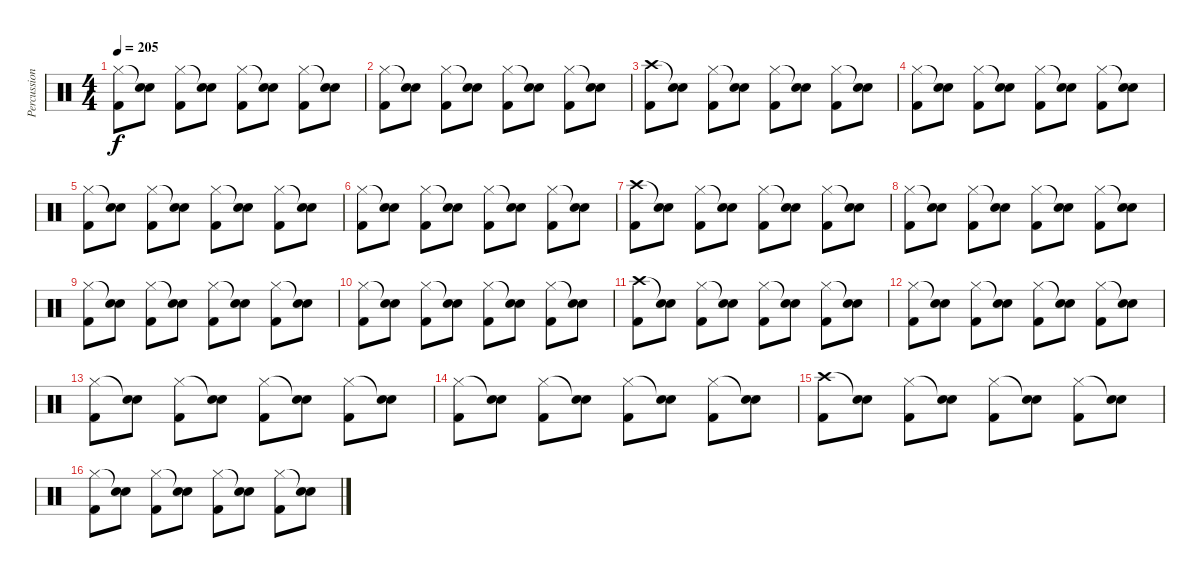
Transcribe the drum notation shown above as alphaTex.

\track ("Percussioni" "Percussion") {instrument percussion}
\staff {score}
\articulation defaults
\ts (4 4)
\tempo 205
\clef neutral
\ks c
("Hi-Hat (closed)" "Kick (hit) 2").8{dy f} ("Snare (hit)"{t} "Snare (hit) 2").8 ("Hi-Hat (closed)" "Kick (hit) 2").8 ("Snare (hit)"{t} "Snare (hit) 2").8 ("Hi-Hat (closed)" "Kick (hit) 2").8 ("Snare (hit)"{t} "Snare (hit) 2").8 ("Hi-Hat (closed)" "Kick (hit) 2").8 ("Snare (hit)"{t} "Snare (hit) 2").8 |
("Hi-Hat (closed)" "Kick (hit) 2").8 ("Snare (hit)"{t} "Snare (hit) 2").8 ("Hi-Hat (closed)" "Kick (hit) 2").8 ("Snare (hit)"{t} "Snare (hit) 2").8 ("Hi-Hat (closed)" "Kick (hit) 2").8 ("Snare (hit)"{t} "Snare (hit) 2").8 ("Hi-Hat (closed)" "Kick (hit) 2").8 ("Snare (hit)"{t} "Snare (hit) 2").8 |
("Crash high (hit)" "Kick (hit) 2").8 ("Snare (hit)"{t} "Snare (hit) 2").8 ("Hi-Hat (closed)" "Kick (hit) 2").8 ("Snare (hit)"{t} "Snare (hit) 2").8 ("Hi-Hat (closed)" "Kick (hit) 2").8 ("Snare (hit)"{t} "Snare (hit) 2").8 ("Hi-Hat (closed)" "Kick (hit) 2").8 ("Snare (hit)"{t} "Snare (hit) 2").8 |
("Hi-Hat (closed)" "Kick (hit) 2").8 ("Snare (hit)"{t} "Snare (hit) 2").8 ("Hi-Hat (closed)" "Kick (hit) 2").8 ("Snare (hit)"{t} "Snare (hit) 2").8 ("Hi-Hat (closed)" "Kick (hit) 2").8 ("Snare (hit)"{t} "Snare (hit) 2").8 ("Hi-Hat (closed)" "Kick (hit) 2").8 ("Snare (hit)"{t} "Snare (hit) 2").8 |
("Hi-Hat (closed)" "Kick (hit) 2").8 ("Snare (hit)"{t} "Snare (hit) 2").8 ("Hi-Hat (closed)" "Kick (hit) 2").8 ("Snare (hit)"{t} "Snare (hit) 2").8 ("Hi-Hat (closed)" "Kick (hit) 2").8 ("Snare (hit)"{t} "Snare (hit) 2").8 ("Hi-Hat (closed)" "Kick (hit) 2").8 ("Snare (hit)"{t} "Snare (hit) 2").8 |
("Hi-Hat (closed)" "Kick (hit) 2").8 ("Snare (hit)"{t} "Snare (hit) 2").8 ("Hi-Hat (closed)" "Kick (hit) 2").8 ("Snare (hit)"{t} "Snare (hit) 2").8 ("Hi-Hat (closed)" "Kick (hit) 2").8 ("Snare (hit)"{t} "Snare (hit) 2").8 ("Hi-Hat (closed)" "Kick (hit) 2").8 ("Snare (hit)"{t} "Snare (hit) 2").8 |
("Crash high (hit)" "Kick (hit) 2").8 ("Snare (hit)"{t} "Snare (hit) 2").8 ("Hi-Hat (closed)" "Kick (hit) 2").8 ("Snare (hit)"{t} "Snare (hit) 2").8 ("Hi-Hat (closed)" "Kick (hit) 2").8 ("Snare (hit)"{t} "Snare (hit) 2").8 ("Hi-Hat (closed)" "Kick (hit) 2").8 ("Snare (hit)"{t} "Snare (hit) 2").8 |
("Hi-Hat (closed)" "Kick (hit) 2").8 ("Snare (hit)"{t} "Snare (hit) 2").8 ("Hi-Hat (closed)" "Kick (hit) 2").8 ("Snare (hit)"{t} "Snare (hit) 2").8 ("Hi-Hat (closed)" "Kick (hit) 2").8 ("Snare (hit)"{t} "Snare (hit) 2").8 ("Hi-Hat (closed)" "Kick (hit) 2").8 ("Snare (hit)"{t} "Snare (hit) 2").8 |
("Hi-Hat (closed)" "Kick (hit) 2").8 ("Snare (hit)"{t} "Snare (hit) 2").8 ("Hi-Hat (closed)" "Kick (hit) 2").8 ("Snare (hit)"{t} "Snare (hit) 2").8 ("Hi-Hat (closed)" "Kick (hit) 2").8 ("Snare (hit)"{t} "Snare (hit) 2").8 ("Hi-Hat (closed)" "Kick (hit) 2").8 ("Snare (hit)"{t} "Snare (hit) 2").8 |
("Hi-Hat (closed)" "Kick (hit) 2").8 ("Snare (hit)"{t} "Snare (hit) 2").8 ("Hi-Hat (closed)" "Kick (hit) 2").8 ("Snare (hit)"{t} "Snare (hit) 2").8 ("Hi-Hat (closed)" "Kick (hit) 2").8 ("Snare (hit)"{t} "Snare (hit) 2").8 ("Hi-Hat (closed)" "Kick (hit) 2").8 ("Snare (hit)"{t} "Snare (hit) 2").8 |
("Crash high (hit)" "Kick (hit) 2").8 ("Snare (hit)"{t} "Snare (hit) 2").8 ("Hi-Hat (closed)" "Kick (hit) 2").8 ("Snare (hit)"{t} "Snare (hit) 2").8 ("Hi-Hat (closed)" "Kick (hit) 2").8 ("Snare (hit)"{t} "Snare (hit) 2").8 ("Hi-Hat (closed)" "Kick (hit) 2").8 ("Snare (hit)"{t} "Snare (hit) 2").8 |
("Hi-Hat (closed)" "Kick (hit) 2").8 ("Snare (hit)"{t} "Snare (hit) 2").8 ("Hi-Hat (closed)" "Kick (hit) 2").8 ("Snare (hit)"{t} "Snare (hit) 2").8 ("Hi-Hat (closed)" "Kick (hit) 2").8 ("Snare (hit)"{t} "Snare (hit) 2").8 ("Hi-Hat (closed)" "Kick (hit) 2").8 ("Snare (hit)"{t} "Snare (hit) 2").8 |
("Hi-Hat (closed)" "Kick (hit) 2").8 ("Snare (hit)"{t} "Snare (hit) 2").8 ("Hi-Hat (closed)" "Kick (hit) 2").8 ("Snare (hit)"{t} "Snare (hit) 2").8 ("Hi-Hat (closed)" "Kick (hit) 2").8 ("Snare (hit)"{t} "Snare (hit) 2").8 ("Hi-Hat (closed)" "Kick (hit) 2").8 ("Snare (hit)"{t} "Snare (hit) 2").8 |
("Hi-Hat (closed)" "Kick (hit) 2").8 ("Snare (hit)"{t} "Snare (hit) 2").8 ("Hi-Hat (closed)" "Kick (hit) 2").8 ("Snare (hit)"{t} "Snare (hit) 2").8 ("Hi-Hat (closed)" "Kick (hit) 2").8 ("Snare (hit)"{t} "Snare (hit) 2").8 ("Hi-Hat (closed)" "Kick (hit) 2").8 ("Snare (hit)"{t} "Snare (hit) 2").8 |
("Crash high (hit)" "Kick (hit) 2").8 ("Snare (hit)"{t} "Snare (hit) 2").8 ("Hi-Hat (closed)" "Kick (hit) 2").8 ("Snare (hit)"{t} "Snare (hit) 2").8 ("Hi-Hat (closed)" "Kick (hit) 2").8 ("Snare (hit)"{t} "Snare (hit) 2").8 ("Hi-Hat (closed)" "Kick (hit) 2").8 ("Snare (hit)"{t} "Snare (hit) 2").8 |
("Hi-Hat (closed)" "Kick (hit) 2").8 ("Snare (hit)"{t} "Snare (hit) 2").8 ("Hi-Hat (closed)" "Kick (hit) 2").8 ("Snare (hit)"{t} "Snare (hit) 2").8 ("Hi-Hat (closed)" "Kick (hit) 2").8 ("Snare (hit)"{t} "Snare (hit) 2").8 ("Hi-Hat (closed)" "Kick (hit) 2").8 ("Snare (hit)"{t} "Snare (hit) 2").8
